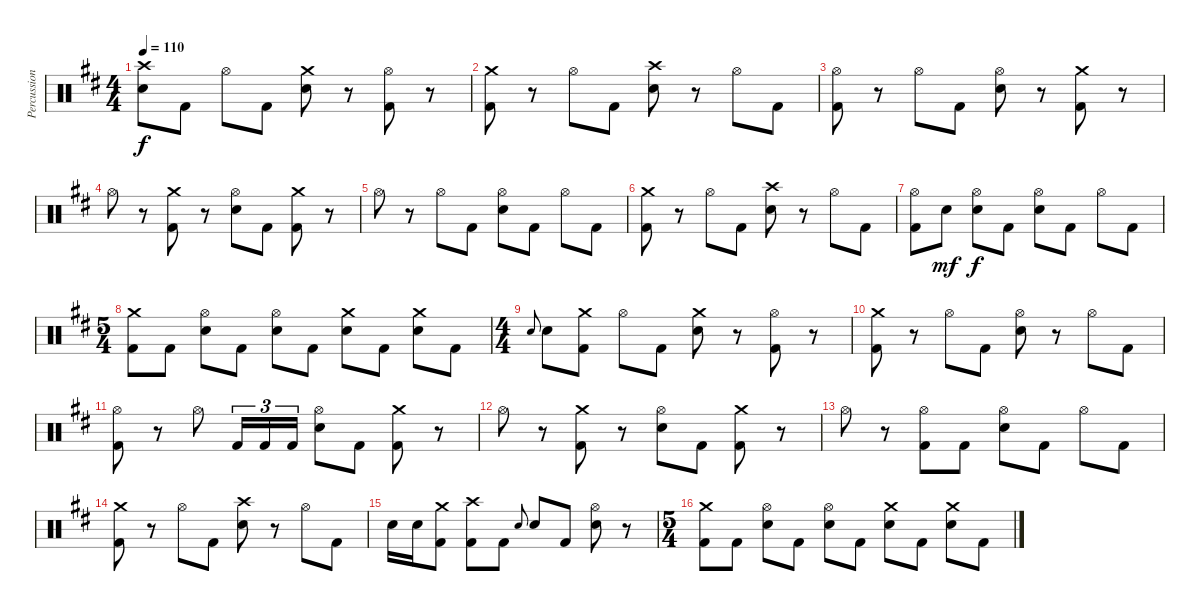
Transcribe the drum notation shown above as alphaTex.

\track ("Percussion" "Percussion") {instrument percussion}
\staff {score}
\articulation defaults
\ts (4 4)
\tempo 110
\clef neutral
\ks bminor
("Crash high (hit)" "Snare (hit) 2").8{dy f} "Kick (hit) 2".8 "Hi-Hat (open)".8 "Kick (hit) 2".8 ("Crash medium (hit)" "Snare (hit) 2").8 r.8 ("Hi-Hat (open)" "Kick (hit) 2").8 r.8 |
("Crash medium (hit)" "Kick (hit) 2").8 r.8 "Hi-Hat (open)".8 "Kick (hit) 2".8 ("Crash high (hit)" "Snare (hit) 2").8 r.8 "Hi-Hat (open)".8 "Kick (hit) 2".8 |
("Hi-Hat (open)" "Kick (hit) 2").8 r.8 "Hi-Hat (open)".8 "Kick (hit) 2".8 ("Hi-Hat (open)" "Snare (hit) 2").8 r.8 ("Crash medium (hit)" "Kick (hit) 2").8 r.8 |
"Hi-Hat (open)".8 r.8 ("Crash medium (hit)" "Kick (hit) 2").8 r.8 ("Hi-Hat (open)" "Snare (hit) 2").8 "Kick (hit) 2".8 ("Crash medium (hit)" "Kick (hit) 2").8 r.8 |
"Hi-Hat (open)".8 r.8 "Hi-Hat (open)".8 "Kick (hit) 2".8 ("Hi-Hat (open)" "Snare (hit) 2").8 "Kick (hit) 2".8 "Hi-Hat (open)".8 "Kick (hit) 2".8 |
("Crash medium (hit)" "Kick (hit) 2").8 r.8 "Hi-Hat (open)".8 "Kick (hit) 2".8 ("Crash high (hit)" "Snare (hit) 2").8 r.8 "Hi-Hat (open)".8 "Kick (hit) 2".8 |
("Hi-Hat (open)" "Kick (hit) 2").8 "Snare (hit) 2".8{dy mf} ("Hi-Hat (open)" "Snare (hit) 2").8{dy f} "Kick (hit) 2".8 ("Hi-Hat (open)" "Snare (hit) 2").8 "Kick (hit) 2".8 "Hi-Hat (open)".8 "Kick (hit) 2".8 |
\ts (5 4)
("Crash medium (hit)" "Kick (hit) 2").8 "Kick (hit) 2".8 ("Hi-Hat (open)" "Snare (hit) 2").8 "Kick (hit) 2".8 ("Hi-Hat (open)" "Snare (hit) 2").8 "Kick (hit) 2".8 ("Crash medium (hit)" "Snare (hit) 2").8 "Kick (hit) 2".8 ("Crash medium (hit)" "Snare (hit) 2").8 "Kick (hit) 2".8 |
\ts (4 4)
"Snare (hit) 2".8{gr onbeat} "Snare (hit) 2".8 ("Crash medium (hit)" "Kick (hit) 2").8 "Hi-Hat (open)".8 "Kick (hit) 2".8 ("Crash medium (hit)" "Snare (hit) 2").8 r.8 ("Hi-Hat (open)" "Kick (hit) 2").8 r.8 |
("Crash medium (hit)" "Kick (hit) 2").8 r.8 "Hi-Hat (open)".8 "Kick (hit) 2".8 ("Hi-Hat (open)" "Snare (hit) 2").8 r.8 "Hi-Hat (open)".8 "Kick (hit) 2".8 |
("Hi-Hat (open)" "Kick (hit) 2").8 r.8 "Hi-Hat (open)".8 "Kick (hit) 2".16{tu (3 2)} "Kick (hit) 2".16{tu (3 2)} "Kick (hit) 2".16{tu (3 2)} ("Hi-Hat (open)" "Snare (hit) 2").8 "Kick (hit) 2".8 ("Crash medium (hit)" "Kick (hit) 2").8 r.8 |
"Hi-Hat (open)".8 r.8 ("Crash medium (hit)" "Kick (hit) 2").8 r.8 ("Hi-Hat (open)" "Snare (hit) 2").8 "Kick (hit) 2".8 ("Crash medium (hit)" "Kick (hit) 2").8 r.8 |
"Hi-Hat (open)".8 r.8 ("Hi-Hat (open)" "Kick (hit) 2").8 "Kick (hit) 2".8 ("Hi-Hat (open)" "Snare (hit) 2").8 "Kick (hit) 2".8 "Hi-Hat (open)".8 "Kick (hit) 2".8 |
("Crash medium (hit)" "Kick (hit) 2").8 r.8 "Hi-Hat (open)".8 "Kick (hit) 2".8 ("Crash high (hit)" "Snare (hit) 2").8 r.8 "Hi-Hat (open)".8 "Kick (hit) 2".8 |
"Snare (hit) 2".16 "Snare (hit) 2".16 ("Crash medium (hit)" "Kick (hit) 2").8 ("Crash high (hit)" "Kick (hit) 2").8 "Kick (hit) 2".8 "Snare (hit) 2".8{gr onbeat} "Snare (hit) 2".8 "Kick (hit) 2".8 ("Hi-Hat (open)" "Snare (hit) 2").8 r.8 |
\ts (5 4)
("Crash medium (hit)" "Kick (hit) 2").8 "Kick (hit) 2".8 ("Hi-Hat (open)" "Snare (hit) 2").8 "Kick (hit) 2".8 ("Hi-Hat (open)" "Snare (hit) 2").8 "Kick (hit) 2".8 ("Crash medium (hit)" "Snare (hit) 2").8 "Kick (hit) 2".8 ("Crash medium (hit)" "Snare (hit) 2").8 "Kick (hit) 2".8
